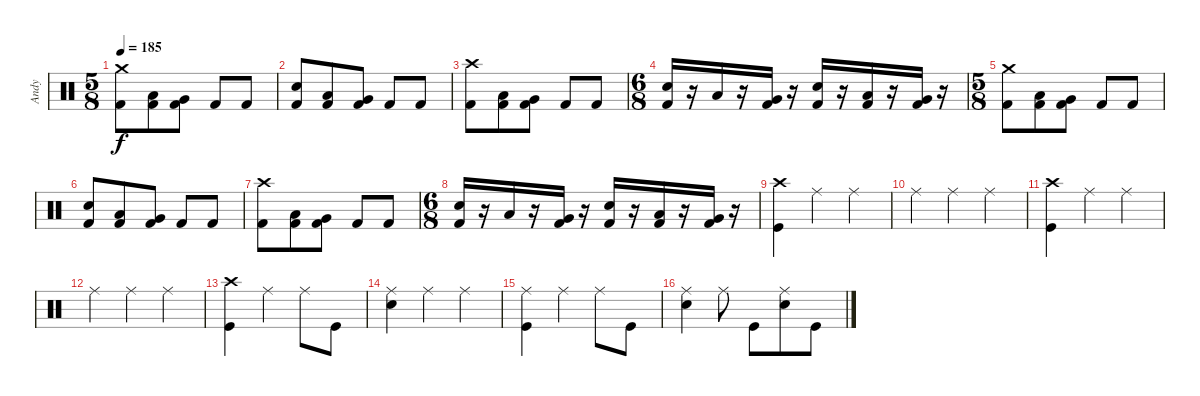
\track ("Andy" "Andy") {instrument percussion}
\staff {score}
\articulation defaults
\ts (5 8)
\tempo 185
\clef neutral
\ks c
("Crash medium (hit)" "Kick (hit) 2").8{dy f} ("Low Tom (hit)" "Kick (hit) 2").8 ("Very Low Tom (hit)" "Kick (hit) 2").8 "Kick (hit) 2".8 "Kick (hit) 2".8 |
("Electric Snare (hit)" "Kick (hit) 2").8 ("Low Tom (hit)" "Kick (hit) 2").8 ("Very Low Tom (hit)" "Kick (hit) 2").8 "Kick (hit) 2".8 "Kick (hit) 2".8 |
("Crash high (hit)" "Kick (hit) 2").8 ("Low Tom (hit)" "Kick (hit) 2").8 ("Very Low Tom (hit)" "Kick (hit) 2").8 "Kick (hit) 2".8 "Kick (hit) 2".8 |
\ts (6 8)
("Electric Snare (hit)" "Kick (hit) 2").16 r.16 "Low Tom (hit)".16 r.16 ("Very Low Tom (hit)" "Kick (hit) 2").16 r.16 ("Electric Snare (hit)" "Kick (hit) 2").16 r.16 ("Low Tom (hit)" "Kick (hit) 2").16 r.16 ("Very Low Tom (hit)" "Kick (hit) 2").16 r.16 |
\ts (5 8)
("Crash medium (hit)" "Kick (hit) 2").8 ("Low Tom (hit)" "Kick (hit) 2").8 ("Very Low Tom (hit)" "Kick (hit) 2").8 "Kick (hit) 2".8 "Kick (hit) 2".8 |
("Electric Snare (hit)" "Kick (hit) 2").8 ("Low Tom (hit)" "Kick (hit) 2").8 ("Very Low Tom (hit)" "Kick (hit) 2").8 "Kick (hit) 2".8 "Kick (hit) 2".8 |
("Crash high (hit)" "Kick (hit) 2").8 ("Low Tom (hit)" "Kick (hit) 2").8 ("Very Low Tom (hit)" "Kick (hit) 2").8 "Kick (hit) 2".8 "Kick (hit) 2".8 |
\ts (6 8)
("Electric Snare (hit)" "Kick (hit) 2").16 r.16 "Low Tom (hit)".16 r.16 ("Very Low Tom (hit)" "Kick (hit) 2").16 r.16 ("Electric Snare (hit)" "Kick (hit) 2").16 r.16 ("Low Tom (hit)" "Kick (hit) 2").16 r.16 ("Very Low Tom (hit)" "Kick (hit) 2").16 r.16 |
("Kick (hit)" "Crash high (hit)").4 "Ride (middle)".4 "Ride (middle)".4 |
"Ride (middle)".4 "Ride (middle)".4 "Ride (middle)".4 |
("Kick (hit)" "Crash high (hit)").4 "Ride (middle)".4 "Ride (middle)".4 |
"Ride (middle)".4 "Ride (middle)".4 "Ride (middle)".4 |
("Kick (hit)" "Crash high (hit)").4 "Ride (middle)".4 "Ride (middle)".8 "Kick (hit)".8 |
("Snare (hit) 2" "Ride (middle)").4 "Ride (middle)".4 "Ride (middle)".4 |
("Kick (hit)" "Ride (middle)").4 "Ride (middle)".4 "Ride (middle)".8 "Kick (hit)".8 |
("Snare (hit) 2" "Ride (middle)").4 "Ride (middle)".8 "Kick (hit)".8 ("Snare (hit) 2" "Ride (middle)").8 "Kick (hit)".8
